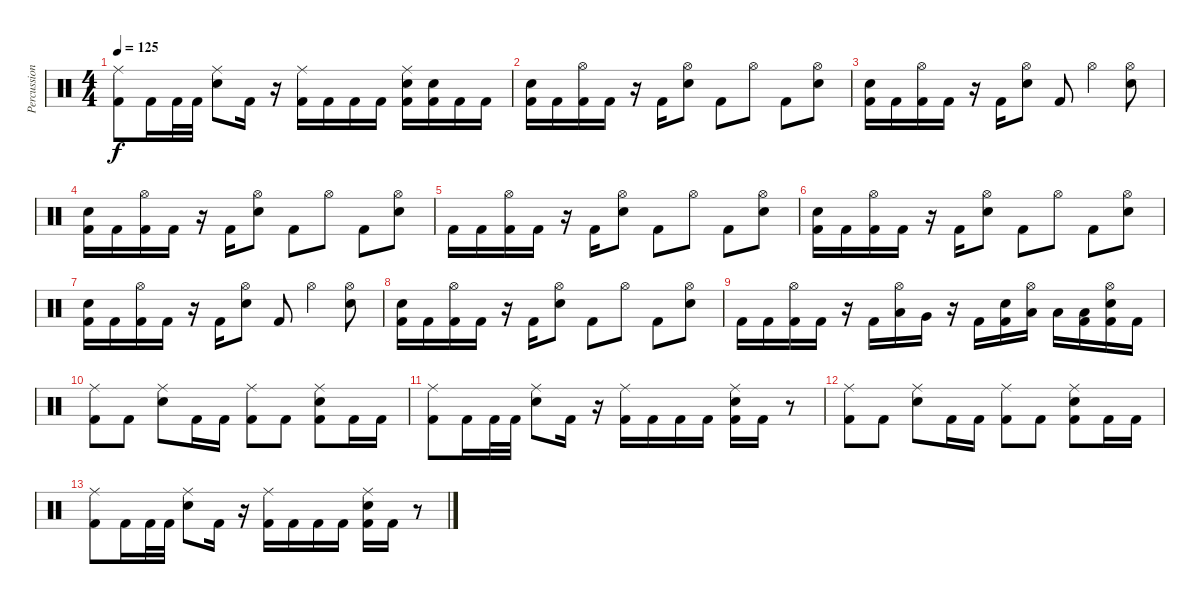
\track ("Percussions" "Percussion") {instrument percussion}
\staff {score}
\articulation defaults
\ts (4 4)
\tempo 125
\clef neutral
\ks c
("Ride (middle)" "Kick (hit) 2").8{dy f} "Kick (hit) 2".16 "Kick (hit) 2".32 "Kick (hit) 2".32 ("Ride (middle)" "Electric Snare (hit)").8 "Kick (hit) 2".16 r.16 ("Ride (middle)" "Kick (hit) 2").16 "Kick (hit) 2".16 "Kick (hit) 2".16 "Kick (hit) 2".16 ("Ride (middle)" "Electric Snare (hit)" "Kick (hit) 2").16 ("Electric Snare (hit)" "Kick (hit) 2").16 "Kick (hit) 2".16 "Kick (hit) 2".16 |
("Electric Snare (hit)" "Kick (hit) 2").16 "Kick (hit) 2".16 ("Hi-Hat (open)" "Kick (hit) 2").16 "Kick (hit) 2".16 r.16 "Kick (hit) 2".16 ("Hi-Hat (open)" "Electric Snare (hit)").8 "Kick (hit) 2".8 "Hi-Hat (open)".8 "Kick (hit) 2".8 ("Hi-Hat (open)" "Electric Snare (hit)").8 |
("Electric Snare (hit)" "Kick (hit) 2").16 "Kick (hit) 2".16 ("Hi-Hat (open)" "Kick (hit) 2").16 "Kick (hit) 2".16 r.16 "Kick (hit) 2".16 ("Hi-Hat (open)" "Electric Snare (hit)").8 "Kick (hit) 2".8 "Hi-Hat (open)".4 ("Hi-Hat (open)" "Electric Snare (hit)").8 |
("Electric Snare (hit)" "Kick (hit) 2").16 "Kick (hit) 2".16 ("Hi-Hat (open)" "Kick (hit) 2").16 "Kick (hit) 2".16 r.16 "Kick (hit) 2".16 ("Hi-Hat (open)" "Electric Snare (hit)").8 "Kick (hit) 2".8 "Hi-Hat (open)".8 "Kick (hit) 2".8 ("Hi-Hat (open)" "Electric Snare (hit)").8 |
"Kick (hit) 2".16 "Kick (hit) 2".16 ("Hi-Hat (open)" "Kick (hit) 2").16 "Kick (hit) 2".16 r.16 "Kick (hit) 2".16 ("Hi-Hat (open)" "Electric Snare (hit)").8 "Kick (hit) 2".8 "Hi-Hat (open)".8 "Kick (hit) 2".8 ("Hi-Hat (open)" "Electric Snare (hit)").8 |
("Electric Snare (hit)" "Kick (hit) 2").16 "Kick (hit) 2".16 ("Hi-Hat (open)" "Kick (hit) 2").16 "Kick (hit) 2".16 r.16 "Kick (hit) 2".16 ("Hi-Hat (open)" "Electric Snare (hit)").8 "Kick (hit) 2".8 "Hi-Hat (open)".8 "Kick (hit) 2".8 ("Hi-Hat (open)" "Electric Snare (hit)").8 |
("Electric Snare (hit)" "Kick (hit) 2").16 "Kick (hit) 2".16 ("Hi-Hat (open)" "Kick (hit) 2").16 "Kick (hit) 2".16 r.16 "Kick (hit) 2".16 ("Hi-Hat (open)" "Electric Snare (hit)").8 "Kick (hit) 2".8 "Hi-Hat (open)".4 ("Hi-Hat (open)" "Electric Snare (hit)").8 |
("Electric Snare (hit)" "Kick (hit) 2").16 "Kick (hit) 2".16 ("Hi-Hat (open)" "Kick (hit) 2").16 "Kick (hit) 2".16 r.16 "Kick (hit) 2".16 ("Hi-Hat (open)" "Electric Snare (hit)").8 "Kick (hit) 2".8 "Hi-Hat (open)".8 "Kick (hit) 2".8 ("Hi-Hat (open)" "Electric Snare (hit)").8 |
"Kick (hit) 2".16 "Kick (hit) 2".16 ("Hi-Hat (open)" "Kick (hit) 2").16 "Kick (hit) 2".16 r.16 "Kick (hit) 2".16 ("Hi-Hat (open)" "Low Tom (hit)").16 "Very Low Tom (hit)".16 r.16 "Kick (hit) 2".16 ("Electric Snare (hit)" "Kick (hit) 2").16 ("Hi-Hat (open)" "Low Tom (hit)").16 "Low Tom (hit)".16 ("Low Tom (hit)" "Kick (hit) 2").16 ("Hi-Hat (open)" "Electric Snare (hit)" "Kick (hit) 2").16 "Kick (hit) 2".16 |
("Ride (middle)" "Kick (hit) 2").8 "Kick (hit) 2".8 ("Ride (middle)" "Electric Snare (hit)").8 "Kick (hit) 2".16 "Kick (hit) 2".16 ("Ride (middle)" "Kick (hit) 2").8 "Kick (hit) 2".8 ("Ride (middle)" "Electric Snare (hit)" "Kick (hit) 2").8 "Kick (hit) 2".16 "Kick (hit) 2".16 |
("Ride (middle)" "Kick (hit) 2").8 "Kick (hit) 2".16 "Kick (hit) 2".32 "Kick (hit) 2".32 ("Ride (middle)" "Electric Snare (hit)").8 "Kick (hit) 2".16 r.16 ("Ride (middle)" "Kick (hit) 2").16 "Kick (hit) 2".16 "Kick (hit) 2".16 "Kick (hit) 2".16 ("Ride (middle)" "Electric Snare (hit)" "Kick (hit) 2").16 "Kick (hit) 2".16 r.8 |
("Ride (middle)" "Kick (hit) 2").8 "Kick (hit) 2".8 ("Ride (middle)" "Electric Snare (hit)").8 "Kick (hit) 2".16 "Kick (hit) 2".16 ("Ride (middle)" "Kick (hit) 2").8 "Kick (hit) 2".8 ("Ride (middle)" "Electric Snare (hit)" "Kick (hit) 2").8 "Kick (hit) 2".16 "Kick (hit) 2".16 |
("Ride (middle)" "Kick (hit) 2").8 "Kick (hit) 2".16 "Kick (hit) 2".32 "Kick (hit) 2".32 ("Ride (middle)" "Electric Snare (hit)").8 "Kick (hit) 2".16 r.16 ("Ride (middle)" "Kick (hit) 2").16 "Kick (hit) 2".16 "Kick (hit) 2".16 "Kick (hit) 2".16 ("Ride (middle)" "Electric Snare (hit)" "Kick (hit) 2").16 "Kick (hit) 2".16 r.8
